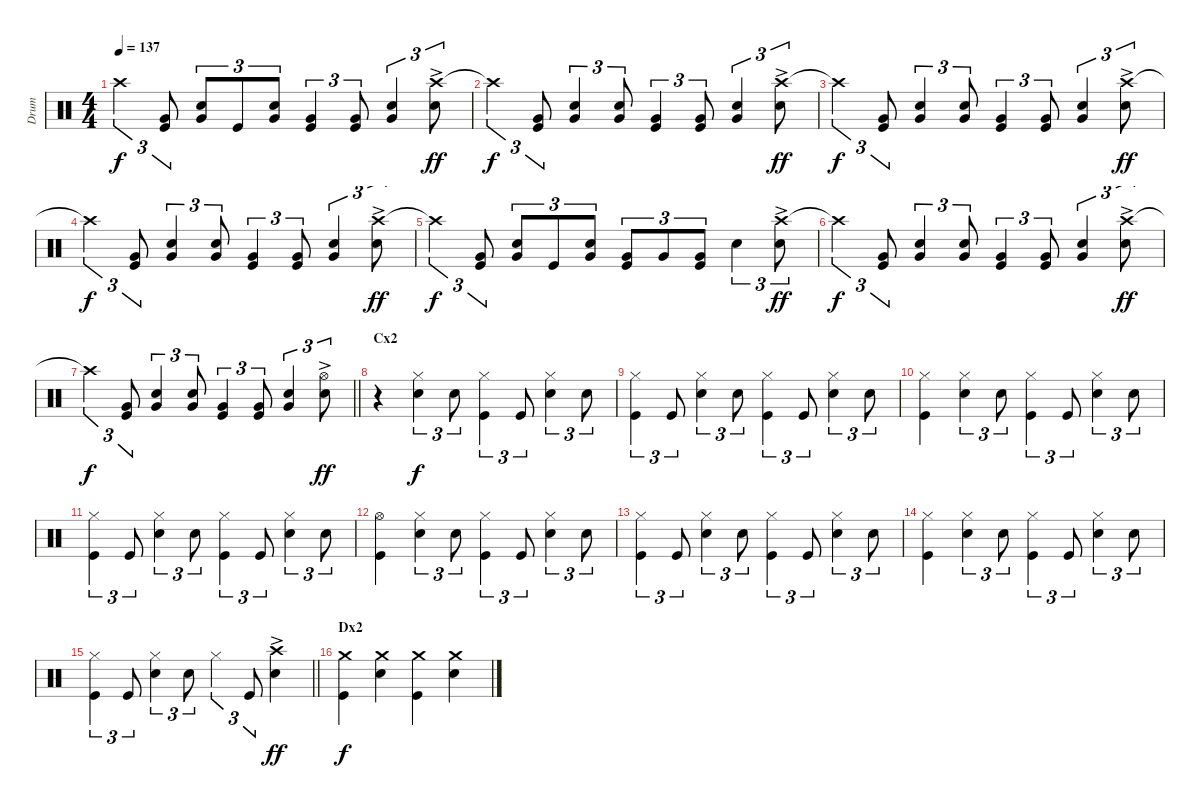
\track ("Drum" "Drum") {instrument percussion}
\staff {score}
\articulation defaults
\ts (4 4)
\tempo 137
\clef neutral
\ks c "Crash high (hit)"{t}.4{tu (3 2) dy f}
("Very Low Tom (hit)" "Kick (hit)").8{tu (3 2)} ("Snare (hit) 2" "Very Low Tom (hit)").8{tu (3 2)} "Kick (hit)".8{tu (3 2)} ("Snare (hit) 2" "Very Low Tom (hit)").8{tu (3 2)} ("Very Low Tom (hit)" "Kick (hit)").4{tu (3 2)} ("Very Low Tom (hit)" "Kick (hit)").8{tu (3 2)} ("Snare (hit) 2" "Very Low Tom (hit)").4{tu (3 2)} ("Crash high (hit)"{ac} "Snare (hit) 2"{ac}).8{tu (3 2) dy ff} |
"Crash high (hit)"{t}.4{tu (3 2) dy f} ("Very Low Tom (hit)" "Kick (hit)").8{tu (3 2)} ("Snare (hit) 2" "Very Low Tom (hit)").4{tu (3 2)} ("Snare (hit) 2" "Very Low Tom (hit)").8{tu (3 2)} ("Very Low Tom (hit)" "Kick (hit)").4{tu (3 2)} ("Very Low Tom (hit)" "Kick (hit)").8{tu (3 2)} ("Snare (hit) 2" "Very Low Tom (hit)").4{tu (3 2)} ("Crash high (hit)"{ac} "Snare (hit) 2"{ac}).8{tu (3 2) dy ff} |
"Crash high (hit)"{t}.4{tu (3 2) dy f} ("Very Low Tom (hit)" "Kick (hit)").8{tu (3 2)} ("Snare (hit) 2" "Very Low Tom (hit)").4{tu (3 2)} ("Snare (hit) 2" "Very Low Tom (hit)").8{tu (3 2)} ("Very Low Tom (hit)" "Kick (hit)").4{tu (3 2)} ("Very Low Tom (hit)" "Kick (hit)").8{tu (3 2)} ("Snare (hit) 2" "Very Low Tom (hit)").4{tu (3 2)} ("Crash high (hit)"{ac} "Snare (hit) 2"{ac}).8{tu (3 2) dy ff} |
"Crash high (hit)"{t}.4{tu (3 2) dy f} ("Very Low Tom (hit)" "Kick (hit)").8{tu (3 2)} ("Snare (hit) 2" "Very Low Tom (hit)").4{tu (3 2)} ("Snare (hit) 2" "Very Low Tom (hit)").8{tu (3 2)} ("Very Low Tom (hit)" "Kick (hit)").4{tu (3 2)} ("Very Low Tom (hit)" "Kick (hit)").8{tu (3 2)} ("Snare (hit) 2" "Very Low Tom (hit)").4{tu (3 2)} ("Crash high (hit)"{ac} "Snare (hit) 2"{ac}).8{tu (3 2) dy ff} |
"Crash high (hit)"{t}.4{tu (3 2) dy f} ("Very Low Tom (hit)" "Kick (hit)").8{tu (3 2)} ("Snare (hit) 2" "Very Low Tom (hit)").8{tu (3 2)} "Kick (hit)".8{tu (3 2)} ("Snare (hit) 2" "Very Low Tom (hit)").8{tu (3 2)} ("Very Low Tom (hit)" "Kick (hit)").8{tu (3 2)} "Very Low Tom (hit)".8{tu (3 2)} ("Very Low Tom (hit)" "Kick (hit)").8{tu (3 2)} "Snare (hit) 2".4{tu (3 2)} ("Crash high (hit)"{ac} "Snare (hit) 2"{ac}).8{tu (3 2) dy ff} |
"Crash high (hit)"{t}.4{tu (3 2) dy f} ("Very Low Tom (hit)" "Kick (hit)").8{tu (3 2)} ("Snare (hit) 2" "Very Low Tom (hit)").4{tu (3 2)} ("Snare (hit) 2" "Very Low Tom (hit)").8{tu (3 2)} ("Very Low Tom (hit)" "Kick (hit)").4{tu (3 2)} ("Very Low Tom (hit)" "Kick (hit)").8{tu (3 2)} ("Snare (hit) 2" "Very Low Tom (hit)").4{tu (3 2)} ("Crash high (hit)"{ac} "Snare (hit) 2"{ac}).8{tu (3 2) dy ff} |
\barLineRight lightlight "Crash high (hit)"{t}.4{tu (3 2) dy f}
("Very Low Tom (hit)" "Kick (hit)").8{tu (3 2)} ("Snare (hit) 2" "Very Low Tom (hit)").4{tu (3 2)} ("Snare (hit) 2" "Very Low Tom (hit)").8{tu (3 2)} ("Very Low Tom (hit)" "Kick (hit)").4{tu (3 2)} ("Very Low Tom (hit)" "Kick (hit)").8{tu (3 2)} ("Snare (hit) 2" "Very Low Tom (hit)").4{tu (3 2)} ("Hi-Hat (open)"{ac} "Snare (hit) 2"{ac}).8{tu (3 2) dy ff} |
\section ("" "Cx2")
r.4 ("Hi-Hat (closed)" "Snare (hit) 2").4{tu (3 2) dy f} "Snare (hit) 2".8{tu (3 2)} ("Hi-Hat (closed)" "Kick (hit)").4{tu (3 2)} "Kick (hit)".8{tu (3 2)} ("Hi-Hat (closed)" "Snare (hit) 2").4{tu (3 2)} "Snare (hit) 2".8{tu (3 2)} |
("Hi-Hat (closed)" "Kick (hit)").4{tu (3 2)} "Kick (hit)".8{tu (3 2)} ("Hi-Hat (closed)" "Snare (hit) 2").4{tu (3 2)} "Snare (hit) 2".8{tu (3 2)} ("Hi-Hat (closed)" "Kick (hit)").4{tu (3 2)} "Kick (hit)".8{tu (3 2)} ("Hi-Hat (closed)" "Snare (hit) 2").4{tu (3 2)} "Snare (hit) 2".8{tu (3 2)} |
("Hi-Hat (closed)" "Kick (hit)").4 ("Hi-Hat (closed)" "Snare (hit) 2").4{tu (3 2)} "Snare (hit) 2".8{tu (3 2)} ("Hi-Hat (closed)" "Kick (hit)").4{tu (3 2)} "Kick (hit)".8{tu (3 2)} ("Hi-Hat (closed)" "Snare (hit) 2").4{tu (3 2)} "Snare (hit) 2".8{tu (3 2)} |
("Hi-Hat (closed)" "Kick (hit)").4{tu (3 2)} "Kick (hit)".8{tu (3 2)} ("Hi-Hat (closed)" "Snare (hit) 2").4{tu (3 2)} "Snare (hit) 2".8{tu (3 2)} ("Hi-Hat (closed)" "Kick (hit)").4{tu (3 2)} "Kick (hit)".8{tu (3 2)} ("Hi-Hat (closed)" "Snare (hit) 2").4{tu (3 2)} "Snare (hit) 2".8{tu (3 2)} |
("Hi-Hat (open)" "Kick (hit)").4 ("Hi-Hat (closed)" "Snare (hit) 2").4{tu (3 2)} "Snare (hit) 2".8{tu (3 2)} ("Hi-Hat (closed)" "Kick (hit)").4{tu (3 2)} "Kick (hit)".8{tu (3 2)} ("Hi-Hat (closed)" "Snare (hit) 2").4{tu (3 2)} "Snare (hit) 2".8{tu (3 2)} |
("Hi-Hat (closed)" "Kick (hit)").4{tu (3 2)} "Kick (hit)".8{tu (3 2)} ("Hi-Hat (closed)" "Snare (hit) 2").4{tu (3 2)} "Snare (hit) 2".8{tu (3 2)} ("Hi-Hat (closed)" "Kick (hit)").4{tu (3 2)} "Kick (hit)".8{tu (3 2)} ("Hi-Hat (closed)" "Snare (hit) 2").4{tu (3 2)} "Snare (hit) 2".8{tu (3 2)} |
("Hi-Hat (closed)" "Kick (hit)").4 ("Hi-Hat (closed)" "Snare (hit) 2").4{tu (3 2)} "Snare (hit) 2".8{tu (3 2)} ("Hi-Hat (closed)" "Kick (hit)").4{tu (3 2)} "Kick (hit)".8{tu (3 2)} ("Hi-Hat (closed)" "Snare (hit) 2").4{tu (3 2)} "Snare (hit) 2".8{tu (3 2)} |
\barLineRight lightlight
("Hi-Hat (closed)" "Kick (hit)").4{tu (3 2)} "Kick (hit)".8{tu (3 2)} ("Hi-Hat (closed)" "Snare (hit) 2").4{tu (3 2)} "Snare (hit) 2".8{tu (3 2)} "Hi-Hat (closed)".4{tu (3 2)} "Kick (hit)".8{tu (3 2)} ("Crash high (hit)"{ac} "Snare (hit) 2"{ac}).4{dy ff} |
\section ("" "Dx2")
("Crash medium (hit)" "Kick (hit)").4{dy f} ("Crash medium (hit)" "Snare (hit) 2").4 ("Crash medium (hit)" "Kick (hit)").4 ("Crash medium (hit)" "Snare (hit) 2").4
